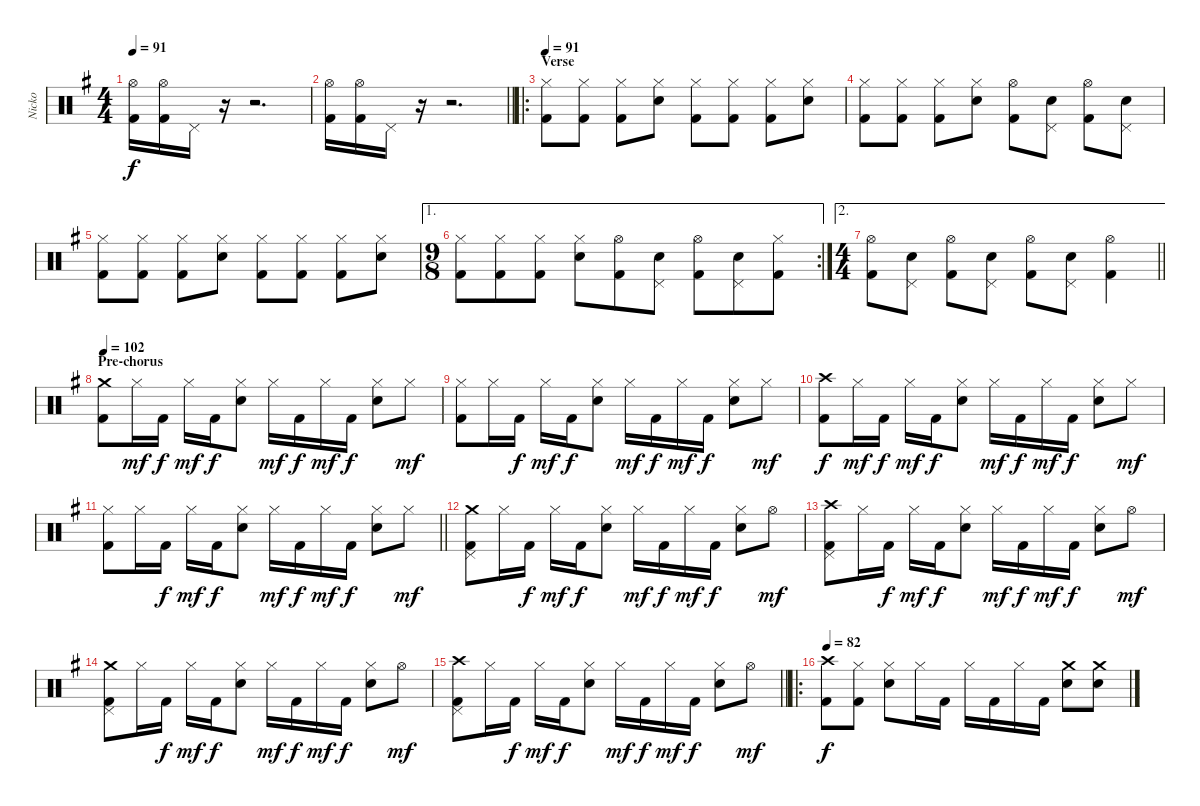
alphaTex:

\track ("Nicko" "Nicko") {instrument percussion}
\staff {score}
\articulation defaults
\ts (4 4)
\tempo 91
\clef neutral
\ks eminor
("Hi-Hat (open)" "Kick (hit) 2").16{dy f} ("Hi-Hat (open)" "Kick (hit) 2").16 "Pedal Hi-Hat (hit)".16 r.16 r.2{d} |
\barLineRight lightlight
("Hi-Hat (open)" "Kick (hit) 2").16 ("Hi-Hat (open)" "Kick (hit) 2").16 "Pedal Hi-Hat (hit)".16 r.16 r.2{d} |
\ro
\section ("" "Verse")
\tempo 91
("Hi-Hat (closed)" "Kick (hit) 2").8 ("Hi-Hat (closed)" "Kick (hit) 2").8 ("Hi-Hat (closed)" "Kick (hit) 2").8 ("Hi-Hat (closed)" "Snare (hit) 2").8 ("Hi-Hat (closed)" "Kick (hit) 2").8 ("Hi-Hat (closed)" "Kick (hit) 2").8 ("Hi-Hat (closed)" "Kick (hit) 2").8 ("Hi-Hat (closed)" "Snare (hit) 2").8 |
("Hi-Hat (closed)" "Kick (hit) 2").8 ("Hi-Hat (closed)" "Kick (hit) 2").8 ("Hi-Hat (closed)" "Kick (hit) 2").8 ("Hi-Hat (closed)" "Snare (hit) 2").8 ("Hi-Hat (open)" "Kick (hit) 2").8 ("Pedal Hi-Hat (hit)" "Snare (hit) 2").8 ("Hi-Hat (open)" "Kick (hit) 2").8 ("Pedal Hi-Hat (hit)" "Snare (hit) 2").8 |
("Hi-Hat (closed)" "Kick (hit) 2").8 ("Hi-Hat (closed)" "Kick (hit) 2").8 ("Hi-Hat (closed)" "Kick (hit) 2").8 ("Hi-Hat (closed)" "Snare (hit) 2").8 ("Hi-Hat (closed)" "Kick (hit) 2").8 ("Hi-Hat (closed)" "Kick (hit) 2").8 ("Hi-Hat (closed)" "Kick (hit) 2").8 ("Hi-Hat (closed)" "Snare (hit) 2").8 |
\ae 1
\rc 2
\ts (9 8)
("Hi-Hat (closed)" "Kick (hit) 2").8 ("Hi-Hat (closed)" "Kick (hit) 2").8 ("Hi-Hat (closed)" "Kick (hit) 2").8 ("Hi-Hat (closed)" "Snare (hit) 2").8 ("Hi-Hat (open)" "Kick (hit) 2").8 ("Pedal Hi-Hat (hit)" "Snare (hit) 2").8 ("Hi-Hat (open)" "Kick (hit) 2").8 ("Pedal Hi-Hat (hit)" "Snare (hit) 2").8 ("Hi-Hat (closed)" "Kick (hit) 2").8 |
\ae 2
\ts (4 4)
\barLineRight lightlight
("Hi-Hat (open)" "Kick (hit) 2").8 ("Pedal Hi-Hat (hit)" "Snare (hit) 2").8 ("Hi-Hat (open)" "Kick (hit) 2").8 ("Pedal Hi-Hat (hit)" "Snare (hit) 2").8 ("Hi-Hat (open)" "Kick (hit) 2").8 ("Pedal Hi-Hat (hit)" "Snare (hit) 2").8 ("Hi-Hat (open)" "Kick (hit) 2").4 |
\section ("" "Pre-chorus")
\tempo 102
("Crash medium (hit)" "Kick (hit) 2").8 "Hi-Hat (closed)".16{dy mf} "Kick (hit) 2".16{dy f} "Hi-Hat (closed)".16{dy mf} "Kick (hit) 2".16{dy f} ("Hi-Hat (closed)" "Snare (hit) 2").8 "Hi-Hat (closed)".16{dy mf} "Kick (hit) 2".16{dy f} "Hi-Hat (closed)".16{dy mf} "Kick (hit) 2".16{dy f} ("Hi-Hat (closed)" "Snare (hit) 2").8 "Hi-Hat (closed)".8{dy mf} |
("Hi-Hat (closed)" "Kick (hit) 2").8 "Hi-Hat (closed)".16 "Kick (hit) 2".16{dy f} "Hi-Hat (closed)".16{dy mf} "Kick (hit) 2".16{dy f} ("Hi-Hat (closed)" "Snare (hit) 2").8 "Hi-Hat (closed)".16{dy mf} "Kick (hit) 2".16{dy f} "Hi-Hat (closed)".16{dy mf} "Kick (hit) 2".16{dy f} ("Hi-Hat (closed)" "Snare (hit) 2").8 "Hi-Hat (closed)".8{dy mf} |
("Crash high (hit)" "Kick (hit) 2").8{dy f} "Hi-Hat (closed)".16{dy mf} "Kick (hit) 2".16{dy f} "Hi-Hat (closed)".16{dy mf} "Kick (hit) 2".16{dy f} ("Hi-Hat (closed)" "Snare (hit) 2").8 "Hi-Hat (closed)".16{dy mf} "Kick (hit) 2".16{dy f} "Hi-Hat (closed)".16{dy mf} "Kick (hit) 2".16{dy f} ("Hi-Hat (closed)" "Snare (hit) 2").8 "Hi-Hat (closed)".8{dy mf} |
\barLineRight lightlight
("Hi-Hat (closed)" "Kick (hit) 2").8 "Hi-Hat (closed)".16 "Kick (hit) 2".16{dy f} "Hi-Hat (closed)".16{dy mf} "Kick (hit) 2".16{dy f} ("Hi-Hat (closed)" "Snare (hit) 2").8 "Hi-Hat (closed)".16{dy mf} "Kick (hit) 2".16{dy f} "Hi-Hat (closed)".16{dy mf} "Kick (hit) 2".16{dy f} ("Hi-Hat (closed)" "Snare (hit) 2").8 "Hi-Hat (closed)".8{dy mf} |
("Crash medium (hit)" "Pedal Hi-Hat (hit)" "Kick (hit) 2").8 "Hi-Hat (closed)".16 "Kick (hit) 2".16{dy f} "Hi-Hat (closed)".16{dy mf} "Kick (hit) 2".16{dy f} ("Hi-Hat (closed)" "Snare (hit) 2").8 "Hi-Hat (closed)".16{dy mf} "Kick (hit) 2".16{dy f} "Hi-Hat (closed)".16{dy mf} "Kick (hit) 2".16{dy f} ("Hi-Hat (closed)" "Snare (hit) 2").8 "Hi-Hat (open)".8{dy mf} |
("Crash high (hit)" "Pedal Hi-Hat (hit)" "Kick (hit) 2").8 "Hi-Hat (closed)".16 "Kick (hit) 2".16{dy f} "Hi-Hat (closed)".16{dy mf} "Kick (hit) 2".16{dy f} ("Hi-Hat (closed)" "Snare (hit) 2").8 "Hi-Hat (closed)".16{dy mf} "Kick (hit) 2".16{dy f} "Hi-Hat (closed)".16{dy mf} "Kick (hit) 2".16{dy f} ("Hi-Hat (closed)" "Snare (hit) 2").8 "Hi-Hat (open)".8{dy mf} |
("Crash medium (hit)" "Pedal Hi-Hat (hit)" "Kick (hit) 2").8 "Hi-Hat (closed)".16 "Kick (hit) 2".16{dy f} "Hi-Hat (closed)".16{dy mf} "Kick (hit) 2".16{dy f} ("Hi-Hat (closed)" "Snare (hit) 2").8 "Hi-Hat (closed)".16{dy mf} "Kick (hit) 2".16{dy f} "Hi-Hat (closed)".16{dy mf} "Kick (hit) 2".16{dy f} ("Hi-Hat (closed)" "Snare (hit) 2").8 "Hi-Hat (open)".8{dy mf} |
\barLineRight lightlight
("Crash high (hit)" "Pedal Hi-Hat (hit)" "Kick (hit) 2").8 "Hi-Hat (closed)".16 "Kick (hit) 2".16{dy f} "Hi-Hat (closed)".16{dy mf} "Kick (hit) 2".16{dy f} ("Hi-Hat (closed)" "Snare (hit) 2").8 "Hi-Hat (closed)".16{dy mf} "Kick (hit) 2".16{dy f} "Hi-Hat (closed)".16{dy mf} "Kick (hit) 2".16{dy f} ("Hi-Hat (closed)" "Snare (hit) 2").8 "Hi-Hat (open)".8{dy mf} |
\ro
\tempo 82
("Crash high (hit)" "Kick (hit) 2").8{dy f} ("Hi-Hat (closed)" "Kick (hit) 2").8 ("Hi-Hat (closed)" "Snare (hit) 2").8 "Hi-Hat (closed)".16 "Kick (hit) 2".16 "Hi-Hat (closed)".16 "Kick (hit) 2".16 "Hi-Hat (closed)".16 "Kick (hit) 2".16 ("Crash medium (hit)" "Snare (hit) 2").8 ("Crash medium (hit)" "Snare (hit) 2").8
